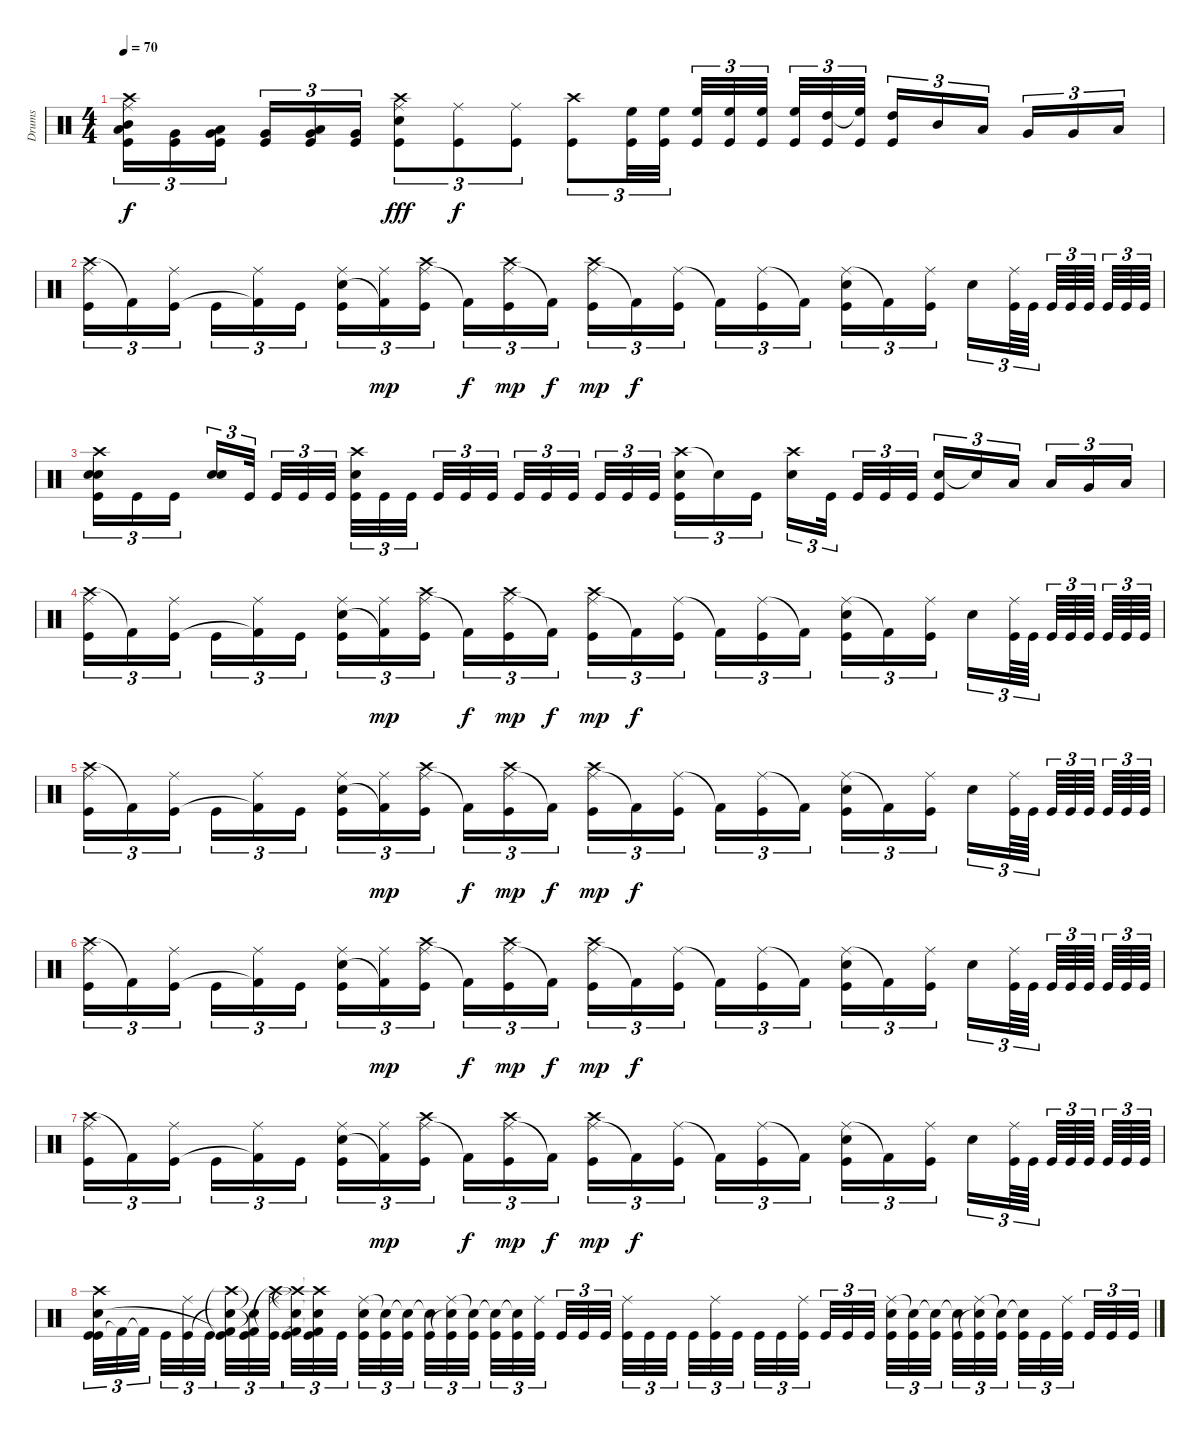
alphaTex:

\track ("Drums" "Drums") {instrument percussion}
\staff {score}
\articulation defaults
\ts (4 4)
\tempo 70
\clef neutral
\ks c
("Crash high (hit)" "Ride (middle)" "Mid Tom (hit)" "Low Tom (hit)" "Kick (hit)").16{tu (3 2) dy f} ("Very Low Tom (hit)" "Kick (hit)").16{tu (3 2)} ("Low Tom (hit)" "Very Low Tom (hit)" "Kick (hit)").16{tu (3 2)} ("Very Low Tom (hit)" "Kick (hit)").16{tu (3 2)} ("Low Floor Tom (hit)" "Very Low Tom (hit)" "Kick (hit)").16{tu (3 2)} ("Very Low Tom (hit)" "Kick (hit)").16{tu (3 2)} ("Crash high (hit)" "Ride (middle)" "Snare (hit) 2" "Kick (hit)").8{tu (3 2) dy fff} ("Ride (middle)" "Kick (hit)").8{tu (3 2) dy f} ("Ride (middle)" "Kick (hit)").8{tu (3 2)} ("Crash high (hit)" "Kick (hit)").8{tu (3 2)} ("High Floor Tom (hit)" "Kick (hit)").32{tu (3 2)} ("High Floor Tom (hit)" "Kick (hit)").32{tu (3 2)} ("High Floor Tom (hit)" "Kick (hit)").32{tu (3 2)} ("High Floor Tom (hit)" "Kick (hit)").32{tu (3 2)} ("High Floor Tom (hit)" "Kick (hit)").32{tu (3 2)} ("High Floor Tom (hit)" "Kick (hit)").32{tu (3 2)} ("High Tom (hit)" "Kick (hit)").32{tu (3 2)} ("High Floor Tom (hit)"{t} "Kick (hit)").32{tu (3 2)} ("High Tom (hit)" "Kick (hit)").16{tu (3 2)} "Mid Tom (hit)".16{tu (3 2)} "Low Tom (hit)".16{tu (3 2)} "Very Low Tom (hit)".16{tu (3 2)} "Very Low Tom (hit)".16{tu (3 2)} "Low Floor Tom (hit)".16{tu (3 2)} |
("Crash high (hit)" "Ride (middle)" "Kick (hit)").16{tu (3 2)} "Kick (hit) 2"{t}.16{tu (3 2)} ("Ride (middle)" "Kick (hit)").16{tu (3 2)} "Kick (hit)".16{tu (3 2)} ("Ride (middle)" "Kick (hit) 2"{t}).16{tu (3 2)} "Kick (hit)".16{tu (3 2)} ("Ride (middle)" "Snare (hit) 2" "Kick (hit)").16{tu (3 2)} ("Ride (middle)" "Kick (hit) 2"{t}).16{tu (3 2) dy mp} ("Ride (middle)" "Crash high (hit)" "Kick (hit)").16{tu (3 2)} "Kick (hit) 2"{t}.16{tu (3 2) dy f} ("Ride (middle)" "Crash high (hit)" "Kick (hit)").16{tu (3 2) dy mp} "Kick (hit) 2"{t}.16{tu (3 2) dy f} ("Ride (middle)" "Crash high (hit)" "Kick (hit)").16{tu (3 2) dy mp} "Kick (hit) 2"{t}.16{tu (3 2) dy f} ("Ride (middle)" "Kick (hit)").16{tu (3 2)} "Kick (hit) 2"{t}.16{tu (3 2)} ("Ride (middle)" "Kick (hit)").16{tu (3 2)} "Kick (hit) 2"{t}.16{tu (3 2)} ("Ride (middle)" "Snare (hit) 2" "Kick (hit)").16{tu (3 2)} "Kick (hit) 2"{t}.16{tu (3 2)} ("Ride (middle)" "Kick (hit)").16{tu (3 2)} "Snare (hit) 2".16{tu (3 2)} ("Ride (middle)" "Kick (hit)").64{tu (3 2)} "Kick (hit)".64{tu (3 2)} "Kick (hit)".64{tu (3 2)} "Kick (hit)".64{tu (3 2)} "Kick (hit)".64{tu (3 2)} "Kick (hit)".64{tu (3 2)} "Kick (hit)".64{tu (3 2)} "Kick (hit)".64{tu (3 2)} |
("Crash high (hit)" "Snare (hit) 2" "Snare (hit) 2" "Kick (hit)").16{tu (3 2)} "Kick (hit)".16{tu (3 2)} "Kick (hit)".16{tu (3 2)} ("Snare (hit) 2" "Snare (hit) 2").16{tu (3 2)} "Kick (hit)".32{tu (3 2)} "Kick (hit)".32{tu (3 2)} "Kick (hit)".32{tu (3 2)} "Kick (hit)".32{tu (3 2)} ("Crash high (hit)" "Snare (hit) 2" "Kick (hit)").32{tu (3 2)} "Kick (hit)".32{tu (3 2)} "Kick (hit)".32{tu (3 2)} "Kick (hit)".32{tu (3 2)} "Kick (hit)".32{tu (3 2)} "Kick (hit)".32{tu (3 2)} "Kick (hit)".32{tu (3 2)} "Kick (hit)".32{tu (3 2)} "Kick (hit)".32{tu (3 2)} "Kick (hit)".32{tu (3 2)} "Kick (hit)".32{tu (3 2)} "Kick (hit)".32{tu (3 2)} ("Crash high (hit)" "Snare (hit) 2" "Kick (hit)").16{tu (3 2)} "Snare (hit)"{t}.16{tu (3 2)} "Kick (hit)".16{tu (3 2)} ("Crash high (hit)" "Snare (hit) 2").16{tu (3 2)} "Kick (hit)".32{tu (3 2)} "Kick (hit)".32{tu (3 2)} "Kick (hit)".32{tu (3 2)} "Kick (hit)".32{tu (3 2)} ("Snare (hit) 2" "Kick (hit)").16{tu (3 2)} "Snare (hit)"{t}.16{tu (3 2)} "Low Tom (hit)".16{tu (3 2)} "Low Tom (hit)".16{tu (3 2)} "Very Low Tom (hit)".16{tu (3 2)} "Low Floor Tom (hit)".16{tu (3 2)} |
("Crash high (hit)" "Ride (middle)" "Kick (hit)").16{tu (3 2)} "Kick (hit) 2"{t}.16{tu (3 2)} ("Ride (middle)" "Kick (hit)").16{tu (3 2)} "Kick (hit)".16{tu (3 2)} ("Ride (middle)" "Kick (hit) 2"{t}).16{tu (3 2)} "Kick (hit)".16{tu (3 2)} ("Ride (middle)" "Snare (hit) 2" "Kick (hit)").16{tu (3 2)} ("Ride (middle)" "Kick (hit) 2"{t}).16{tu (3 2) dy mp} ("Ride (middle)" "Crash high (hit)" "Kick (hit)").16{tu (3 2)} "Kick (hit) 2"{t}.16{tu (3 2) dy f} ("Ride (middle)" "Crash high (hit)" "Kick (hit)").16{tu (3 2) dy mp} "Kick (hit) 2"{t}.16{tu (3 2) dy f} ("Ride (middle)" "Crash high (hit)" "Kick (hit)").16{tu (3 2) dy mp} "Kick (hit) 2"{t}.16{tu (3 2) dy f} ("Ride (middle)" "Kick (hit)").16{tu (3 2)} "Kick (hit) 2"{t}.16{tu (3 2)} ("Ride (middle)" "Kick (hit)").16{tu (3 2)} "Kick (hit) 2"{t}.16{tu (3 2)} ("Ride (middle)" "Snare (hit) 2" "Kick (hit)").16{tu (3 2)} "Kick (hit) 2"{t}.16{tu (3 2)} ("Ride (middle)" "Kick (hit)").16{tu (3 2)} "Snare (hit) 2".16{tu (3 2)} ("Ride (middle)" "Kick (hit)").64{tu (3 2)} "Kick (hit)".64{tu (3 2)} "Kick (hit)".64{tu (3 2)} "Kick (hit)".64{tu (3 2)} "Kick (hit)".64{tu (3 2)} "Kick (hit)".64{tu (3 2)} "Kick (hit)".64{tu (3 2)} "Kick (hit)".64{tu (3 2)} |
("Crash high (hit)" "Ride (middle)" "Kick (hit)").16{tu (3 2)} "Kick (hit) 2"{t}.16{tu (3 2)} ("Ride (middle)" "Kick (hit)").16{tu (3 2)} "Kick (hit)".16{tu (3 2)} ("Ride (middle)" "Kick (hit) 2"{t}).16{tu (3 2)} "Kick (hit)".16{tu (3 2)} ("Ride (middle)" "Snare (hit) 2" "Kick (hit)").16{tu (3 2)} ("Ride (middle)" "Kick (hit) 2"{t}).16{tu (3 2) dy mp} ("Ride (middle)" "Crash high (hit)" "Kick (hit)").16{tu (3 2)} "Kick (hit) 2"{t}.16{tu (3 2) dy f} ("Ride (middle)" "Crash high (hit)" "Kick (hit)").16{tu (3 2) dy mp} "Kick (hit) 2"{t}.16{tu (3 2) dy f} ("Ride (middle)" "Crash high (hit)" "Kick (hit)").16{tu (3 2) dy mp} "Kick (hit) 2"{t}.16{tu (3 2) dy f} ("Ride (middle)" "Kick (hit)").16{tu (3 2)} "Kick (hit) 2"{t}.16{tu (3 2)} ("Ride (middle)" "Kick (hit)").16{tu (3 2)} "Kick (hit) 2"{t}.16{tu (3 2)} ("Ride (middle)" "Snare (hit) 2" "Kick (hit)").16{tu (3 2)} "Kick (hit) 2"{t}.16{tu (3 2)} ("Ride (middle)" "Kick (hit)").16{tu (3 2)} "Snare (hit) 2".16{tu (3 2)} ("Ride (middle)" "Kick (hit)").64{tu (3 2)} "Kick (hit)".64{tu (3 2)} "Kick (hit)".64{tu (3 2)} "Kick (hit)".64{tu (3 2)} "Kick (hit)".64{tu (3 2)} "Kick (hit)".64{tu (3 2)} "Kick (hit)".64{tu (3 2)} "Kick (hit)".64{tu (3 2)} |
("Crash high (hit)" "Ride (middle)" "Kick (hit)").16{tu (3 2)} "Kick (hit) 2"{t}.16{tu (3 2)} ("Ride (middle)" "Kick (hit)").16{tu (3 2)} "Kick (hit)".16{tu (3 2)} ("Ride (middle)" "Kick (hit) 2"{t}).16{tu (3 2)} "Kick (hit)".16{tu (3 2)} ("Ride (middle)" "Snare (hit) 2" "Kick (hit)").16{tu (3 2)} ("Ride (middle)" "Kick (hit) 2"{t}).16{tu (3 2) dy mp} ("Ride (middle)" "Crash high (hit)" "Kick (hit)").16{tu (3 2)} "Kick (hit) 2"{t}.16{tu (3 2) dy f} ("Ride (middle)" "Crash high (hit)" "Kick (hit)").16{tu (3 2) dy mp} "Kick (hit) 2"{t}.16{tu (3 2) dy f} ("Ride (middle)" "Crash high (hit)" "Kick (hit)").16{tu (3 2) dy mp} "Kick (hit) 2"{t}.16{tu (3 2) dy f} ("Ride (middle)" "Kick (hit)").16{tu (3 2)} "Kick (hit) 2"{t}.16{tu (3 2)} ("Ride (middle)" "Kick (hit)").16{tu (3 2)} "Kick (hit) 2"{t}.16{tu (3 2)} ("Ride (middle)" "Snare (hit) 2" "Kick (hit)").16{tu (3 2)} "Kick (hit) 2"{t}.16{tu (3 2)} ("Ride (middle)" "Kick (hit)").16{tu (3 2)} "Snare (hit) 2".16{tu (3 2)} ("Ride (middle)" "Kick (hit)").64{tu (3 2)} "Kick (hit)".64{tu (3 2)} "Kick (hit)".64{tu (3 2)} "Kick (hit)".64{tu (3 2)} "Kick (hit)".64{tu (3 2)} "Kick (hit)".64{tu (3 2)} "Kick (hit)".64{tu (3 2)} "Kick (hit)".64{tu (3 2)} |
("Crash high (hit)" "Ride (middle)" "Kick (hit)").16{tu (3 2)} "Kick (hit) 2"{t}.16{tu (3 2)} ("Ride (middle)" "Kick (hit)").16{tu (3 2)} "Kick (hit)".16{tu (3 2)} ("Ride (middle)" "Kick (hit) 2"{t}).16{tu (3 2)} "Kick (hit)".16{tu (3 2)} ("Ride (middle)" "Snare (hit) 2" "Kick (hit)").16{tu (3 2)} ("Ride (middle)" "Kick (hit) 2"{t}).16{tu (3 2) dy mp} ("Ride (middle)" "Crash high (hit)" "Kick (hit)").16{tu (3 2)} "Kick (hit) 2"{t}.16{tu (3 2) dy f} ("Ride (middle)" "Crash high (hit)" "Kick (hit)").16{tu (3 2) dy mp} "Kick (hit) 2"{t}.16{tu (3 2) dy f} ("Ride (middle)" "Crash high (hit)" "Kick (hit)").16{tu (3 2) dy mp} "Kick (hit) 2"{t}.16{tu (3 2) dy f} ("Ride (middle)" "Kick (hit)").16{tu (3 2)} "Kick (hit) 2"{t}.16{tu (3 2)} ("Ride (middle)" "Kick (hit)").16{tu (3 2)} "Kick (hit) 2"{t}.16{tu (3 2)} ("Ride (middle)" "Snare (hit) 2" "Kick (hit)").16{tu (3 2)} "Kick (hit) 2"{t}.16{tu (3 2)} ("Ride (middle)" "Kick (hit)").16{tu (3 2)} "Snare (hit) 2".16{tu (3 2)} ("Ride (middle)" "Kick (hit)").64{tu (3 2)} "Kick (hit)".64{tu (3 2)} "Kick (hit)".64{tu (3 2)} "Kick (hit)".64{tu (3 2)} "Kick (hit)".64{tu (3 2)} "Kick (hit)".64{tu (3 2)} "Kick (hit)".64{tu (3 2)} "Kick (hit)".64{tu (3 2)} |
("Kick (hit)" "Crash high (hit)" "Snare (hit) 2" "Kick (hit)").32{tu (3 2)} "Kick (hit) 2"{t}.32{tu (3 2)} "Kick (hit) 2"{t}.32{tu (3 2)} "Kick (hit)".32{tu (3 2)} ("Ride (middle)" "Kick (hit)").32{tu (3 2)} "Kick (hit)".32{tu (3 2)} ("Crash high (hit)"{t} "Snare (hit) 2"{t} "Kick (hit) 2"{t} "Kick (hit)").32{tu (3 2)} ("Snare (hit) 2"{t} "Kick (hit) 2"{t} "Kick (hit)").32{tu (3 2)} ("Ride (middle)" "Crash high (hit)"{t} "Kick (hit)").32{tu (3 2)} ("Crash high (hit)"{t} "Snare (hit) 2"{t} "Kick (hit) 2"{t} "Kick (hit)").32{tu (3 2)} ("Crash high (hit)"{t} "Snare (hit) 2"{t} "Kick (hit) 2"{t} "Kick (hit)").32{tu (3 2)} "Kick (hit)".32{tu (3 2)} ("Ride (middle)" "Snare (hit) 2" "Kick (hit)").32{tu (3 2)} ("Snare (hit)"{t} "Kick (hit)").32{tu (3 2)} ("Snare (hit)"{t} "Kick (hit)").32{tu (3 2)} ("Snare (hit)"{t} "Kick (hit)").32{tu (3 2)} ("Ride (middle)" "Snare (hit)"{t} "Kick (hit)").32{tu (3 2)} ("Snare (hit)"{t} "Kick (hit)").32{tu (3 2)} ("Snare (hit)"{t} "Kick (hit)").32{tu (3 2)} ("Snare (hit)"{t} "Kick (hit)").32{tu (3 2)} ("Ride (middle)" "Kick (hit)").32{tu (3 2)} "Kick (hit)".32{tu (3 2)} "Kick (hit)".32{tu (3 2)} "Kick (hit)".32{tu (3 2)} ("Ride (middle)" "Kick (hit)").32{tu (3 2)} "Kick (hit)".32{tu (3 2)} "Kick (hit)".32{tu (3 2)} "Kick (hit)".32{tu (3 2)} ("Ride (middle)" "Kick (hit)").32{tu (3 2)} "Kick (hit)".32{tu (3 2)} "Kick (hit)".32{tu (3 2)} "Kick (hit)".32{tu (3 2)} ("Ride (middle)" "Kick (hit)").32{tu (3 2)} "Kick (hit)".32{tu (3 2)} "Kick (hit)".32{tu (3 2)} "Kick (hit)".32{tu (3 2)} ("Ride (middle)" "Snare (hit) 2" "Kick (hit)").32{tu (3 2)} ("Snare (hit)"{t} "Kick (hit)").32{tu (3 2)} ("Snare (hit)"{t} "Kick (hit)").32{tu (3 2)} ("Snare (hit)"{t} "Kick (hit)").32{tu (3 2)} ("Ride (middle)" "Snare (hit)"{t} "Kick (hit)").32{tu (3 2)} ("Snare (hit)"{t} "Kick (hit)").32{tu (3 2)} ("Snare (hit)"{t} "Kick (hit)").32{tu (3 2)} "Kick (hit)".32{tu (3 2)} ("Ride (middle)" "Kick (hit)").32{tu (3 2)} "Kick (hit)".32{tu (3 2)} "Kick (hit)".32{tu (3 2)} "Kick (hit)".32{tu (3 2)}
